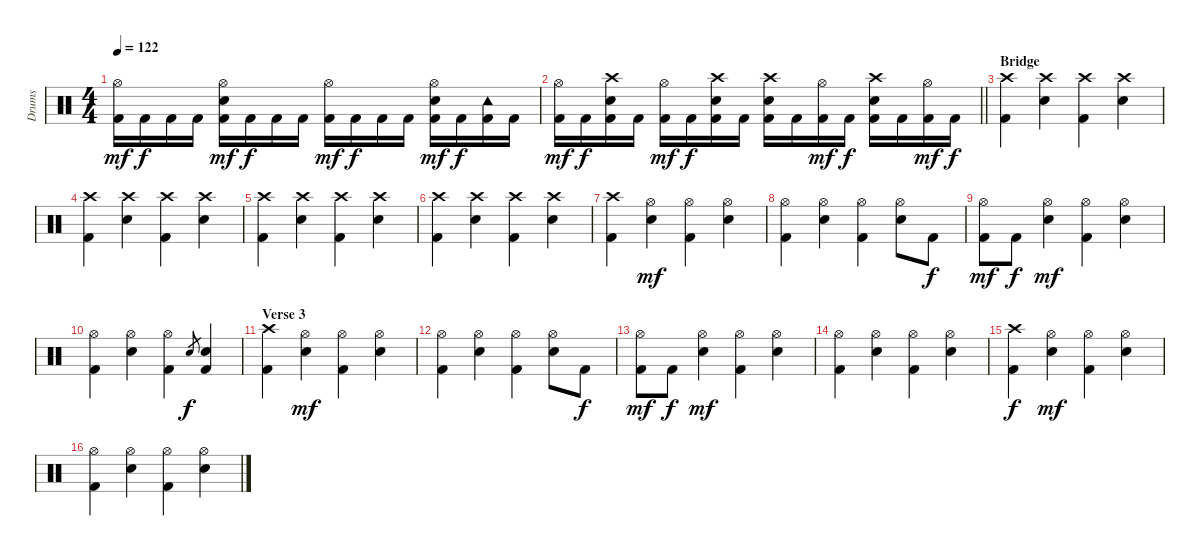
\track ("Drums" "Drums") {instrument percussion}
\staff {score}
\articulation defaults
\ts (4 4)
\tempo 122
\clef neutral
\ks c
("Hi-Hat (open)" "Kick (hit) 2").16{dy mf} "Kick (hit) 2".16{dy f} "Kick (hit) 2".16 "Kick (hit) 2".16 ("Hi-Hat (open)" "Electric Snare (hit)" "Kick (hit) 2").16{dy mf} "Kick (hit) 2".16{dy f} "Kick (hit) 2".16 "Kick (hit) 2".16 ("Hi-Hat (open)" "Kick (hit) 2").16{dy mf} "Kick (hit) 2".16{dy f} "Kick (hit) 2".16 "Kick (hit) 2".16 ("Hi-Hat (open)" "Electric Snare (hit)" "Kick (hit) 2").16{dy mf} "Kick (hit) 2".16{dy f} ("Tambourine (hit)" "Kick (hit) 2").16 "Kick (hit) 2".16 |
\barLineRight lightlight
("Hi-Hat (open)" "Kick (hit) 2").16{dy mf} "Kick (hit) 2".16{dy f} ("Crash high (hit)" "Electric Snare (hit)" "Kick (hit) 2").16 "Kick (hit) 2".16 ("Hi-Hat (open)" "Kick (hit) 2").16{dy mf} "Kick (hit) 2".16{dy f} ("Crash high (hit)" "Electric Snare (hit)" "Kick (hit) 2").16 "Kick (hit) 2".16 ("Crash high (hit)" "Electric Snare (hit)" "Kick (hit) 2").16 "Kick (hit) 2".16 ("Hi-Hat (open)" "Kick (hit) 2").16{dy mf} "Kick (hit) 2".16{dy f} ("Crash high (hit)" "Electric Snare (hit)" "Kick (hit) 2").16 "Kick (hit) 2".16 ("Hi-Hat (open)" "Kick (hit) 2").16{dy mf} "Kick (hit) 2".16{dy f} |
\section ("" "Bridge")
("Crash high (hit)" "Kick (hit) 2").4 ("Crash high (hit)" "Electric Snare (hit)").4 ("Crash high (hit)" "Kick (hit) 2").4 ("Crash high (hit)" "Electric Snare (hit)").4 |
("Crash high (hit)" "Kick (hit) 2").4 ("Crash high (hit)" "Electric Snare (hit)").4 ("Crash high (hit)" "Kick (hit) 2").4 ("Crash high (hit)" "Electric Snare (hit)").4 |
("Crash high (hit)" "Kick (hit) 2").4 ("Crash high (hit)" "Electric Snare (hit)").4 ("Crash high (hit)" "Kick (hit) 2").4 ("Crash high (hit)" "Electric Snare (hit)").4 |
("Crash high (hit)" "Kick (hit) 2").4 ("Crash high (hit)" "Electric Snare (hit)").4 ("Crash high (hit)" "Kick (hit) 2").4 ("Crash high (hit)" "Electric Snare (hit)").4 |
("Crash high (hit)" "Kick (hit) 2").4 ("Hi-Hat (open)" "Electric Snare (hit)").4{dy mf} ("Hi-Hat (open)" "Kick (hit) 2").4 ("Hi-Hat (open)" "Electric Snare (hit)").4 |
("Hi-Hat (open)" "Kick (hit) 2").4 ("Hi-Hat (open)" "Electric Snare (hit)").4 ("Hi-Hat (open)" "Kick (hit) 2").4 ("Hi-Hat (open)" "Electric Snare (hit)").8 "Kick (hit) 2".8{dy f} |
("Hi-Hat (open)" "Kick (hit) 2").8{dy mf} "Kick (hit) 2".8{dy f} ("Hi-Hat (open)" "Electric Snare (hit)").4{dy mf} ("Hi-Hat (open)" "Kick (hit) 2").4 ("Hi-Hat (open)" "Electric Snare (hit)").4 |
("Hi-Hat (open)" "Kick (hit) 2").4 ("Hi-Hat (open)" "Electric Snare (hit)").4 ("Hi-Hat (open)" "Kick (hit) 2").4 "Electric Snare (hit)".8{gr dy f} ("Electric Snare (hit)" "Kick (hit) 2").4 |
\section ("" "Verse 3")
("Crash high (hit)" "Kick (hit) 2").4 ("Hi-Hat (open)" "Electric Snare (hit)").4{dy mf} ("Hi-Hat (open)" "Kick (hit) 2").4 ("Hi-Hat (open)" "Electric Snare (hit)").4 |
("Hi-Hat (open)" "Kick (hit) 2").4 ("Hi-Hat (open)" "Electric Snare (hit)").4 ("Hi-Hat (open)" "Kick (hit) 2").4 ("Hi-Hat (open)" "Electric Snare (hit)").8 "Kick (hit) 2".8{dy f} |
("Hi-Hat (open)" "Kick (hit) 2").8{dy mf} "Kick (hit) 2".8{dy f} ("Hi-Hat (open)" "Electric Snare (hit)").4{dy mf} ("Hi-Hat (open)" "Kick (hit) 2").4 ("Hi-Hat (open)" "Electric Snare (hit)").4 |
("Hi-Hat (open)" "Kick (hit) 2").4 ("Hi-Hat (open)" "Electric Snare (hit)").4 ("Hi-Hat (open)" "Kick (hit) 2").4 ("Hi-Hat (open)" "Electric Snare (hit)").4 |
("Crash high (hit)" "Kick (hit) 2").4{dy f} ("Hi-Hat (open)" "Electric Snare (hit)").4{dy mf} ("Hi-Hat (open)" "Kick (hit) 2").4 ("Hi-Hat (open)" "Electric Snare (hit)").4 |
("Hi-Hat (open)" "Kick (hit) 2").4 ("Hi-Hat (open)" "Electric Snare (hit)").4 ("Hi-Hat (open)" "Kick (hit) 2").4 ("Hi-Hat (open)" "Electric Snare (hit)").4
